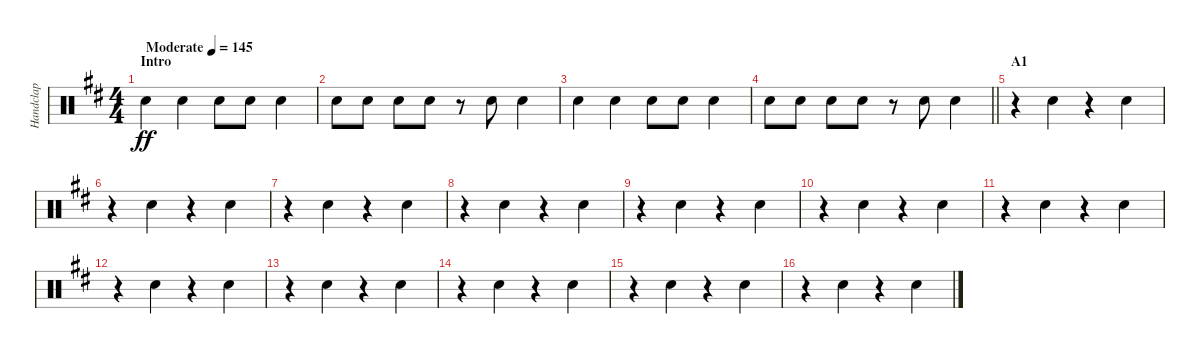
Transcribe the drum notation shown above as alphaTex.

\track ("Handclap" "Handclap") {instrument percussion}
\staff {score}
\articulation defaults
\ts (4 4)
\section ("" "Intro")
\tempo (145 "Moderate")
\clef neutral
\ks d "Hand Clap (hit)".4{dy ff} "Hand Clap (hit)".4 "Hand Clap (hit)".8 "Hand Clap (hit)".8 "Hand Clap (hit)".4
|
"Hand Clap (hit)".8 "Hand Clap (hit)".8 "Hand Clap (hit)".8 "Hand Clap (hit)".8 r.8 "Hand Clap (hit)".8 "Hand Clap (hit)".4 |
"Hand Clap (hit)".4 "Hand Clap (hit)".4 "Hand Clap (hit)".8 "Hand Clap (hit)".8 "Hand Clap (hit)".4 |
\barLineRight lightlight "Hand Clap (hit)".8 "Hand Clap (hit)".8 "Hand Clap (hit)".8 "Hand Clap (hit)".8
r.8 "Hand Clap (hit)".8 "Hand Clap (hit)".4 |
\section ("" "A1")
r.4 "Hand Clap (hit)".4 r.4 "Hand Clap (hit)".4 |
r.4 "Hand Clap (hit)".4 r.4 "Hand Clap (hit)".4 |
r.4 "Hand Clap (hit)".4 r.4 "Hand Clap (hit)".4 |
r.4 "Hand Clap (hit)".4 r.4 "Hand Clap (hit)".4 |
r.4 "Hand Clap (hit)".4 r.4 "Hand Clap (hit)".4 |
r.4 "Hand Clap (hit)".4 r.4 "Hand Clap (hit)".4 |
r.4 "Hand Clap (hit)".4 r.4 "Hand Clap (hit)".4 |
r.4 "Hand Clap (hit)".4 r.4 "Hand Clap (hit)".4 |
r.4 "Hand Clap (hit)".4 r.4 "Hand Clap (hit)".4 |
r.4 "Hand Clap (hit)".4 r.4 "Hand Clap (hit)".4 |
r.4 "Hand Clap (hit)".4 r.4 "Hand Clap (hit)".4 |
r.4 "Hand Clap (hit)".4 r.4 "Hand Clap (hit)".4
